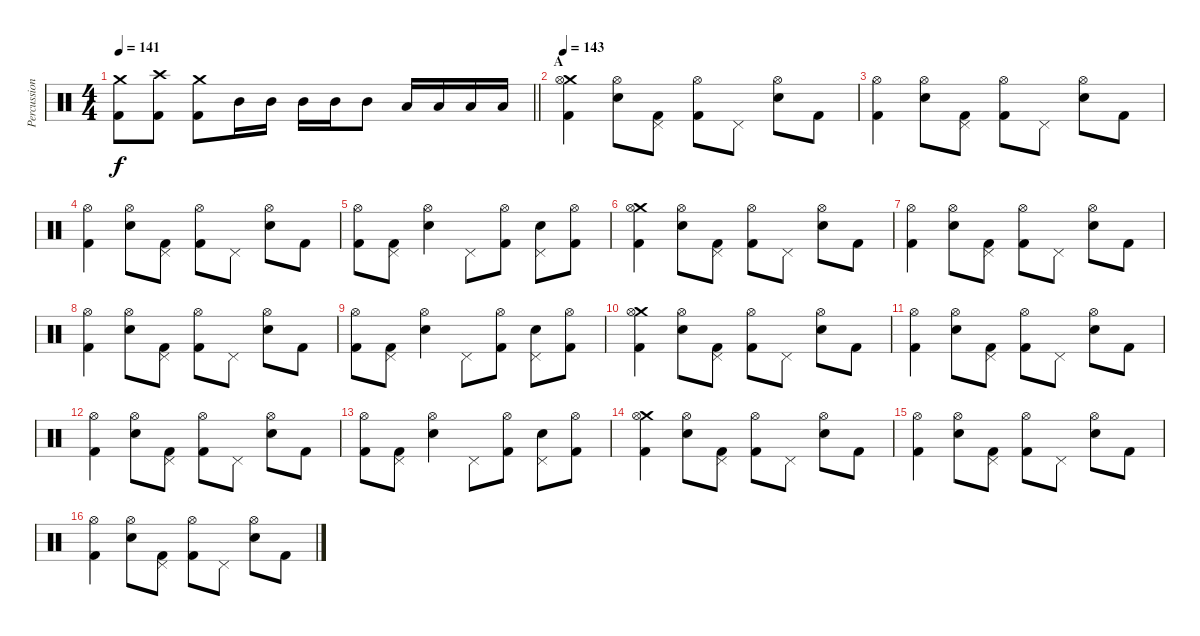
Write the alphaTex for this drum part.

\track ("Percussion" "Percussion") {instrument percussion}
\staff {score}
\articulation defaults
\ts (4 4)
\tempo 141
\clef neutral
\barLineRight lightlight
\ks c
("Crash medium (hit)" "Kick (hit) 2").8{dy f} ("Crash high (hit)" "Kick (hit) 2").8 ("Crash medium (hit)" "Kick (hit) 2").8 "Mid Tom (hit)".16 "Mid Tom (hit)".16 "Mid Tom (hit)".16 "Mid Tom (hit)".16 "Mid Tom (hit)".8 "Low Tom (hit)".16 "Low Tom (hit)".16 "Low Tom (hit)".16 "Low Tom (hit)".16 |
\section ("" "A")
\tempo 143
("Crash medium (hit)" "Hi-Hat (open)" "Kick (hit) 2").4 ("Hi-Hat (open)" "Snare (hit) 2").8 ("Pedal Hi-Hat (hit)" "Kick (hit) 2").8 ("Hi-Hat (open)" "Kick (hit) 2").8 "Pedal Hi-Hat (hit)".8 ("Hi-Hat (open)" "Snare (hit) 2").8 "Kick (hit) 2".8 |
("Hi-Hat (open)" "Kick (hit) 2").4 ("Hi-Hat (open)" "Snare (hit) 2").8 ("Pedal Hi-Hat (hit)" "Kick (hit) 2").8 ("Hi-Hat (open)" "Kick (hit) 2").8 "Pedal Hi-Hat (hit)".8 ("Hi-Hat (open)" "Snare (hit) 2").8 "Kick (hit) 2".8 |
("Hi-Hat (open)" "Kick (hit) 2").4 ("Hi-Hat (open)" "Snare (hit) 2").8 ("Pedal Hi-Hat (hit)" "Kick (hit) 2").8 ("Hi-Hat (open)" "Kick (hit) 2").8 "Pedal Hi-Hat (hit)".8 ("Hi-Hat (open)" "Snare (hit) 2").8 "Kick (hit) 2".8 |
("Hi-Hat (open)" "Kick (hit) 2").8 ("Pedal Hi-Hat (hit)" "Kick (hit) 2").8 ("Hi-Hat (open)" "Snare (hit) 2").4 "Pedal Hi-Hat (hit)".8 ("Hi-Hat (open)" "Kick (hit) 2").8 ("Pedal Hi-Hat (hit)" "Snare (hit) 2").8 ("Hi-Hat (open)" "Kick (hit) 2").8 |
("Crash medium (hit)" "Hi-Hat (open)" "Kick (hit) 2").4 ("Hi-Hat (open)" "Snare (hit) 2").8 ("Pedal Hi-Hat (hit)" "Kick (hit) 2").8 ("Hi-Hat (open)" "Kick (hit) 2").8 "Pedal Hi-Hat (hit)".8 ("Hi-Hat (open)" "Snare (hit) 2").8 "Kick (hit) 2".8 |
("Hi-Hat (open)" "Kick (hit) 2").4 ("Hi-Hat (open)" "Snare (hit) 2").8 ("Pedal Hi-Hat (hit)" "Kick (hit) 2").8 ("Hi-Hat (open)" "Kick (hit) 2").8 "Pedal Hi-Hat (hit)".8 ("Hi-Hat (open)" "Snare (hit) 2").8 "Kick (hit) 2".8 |
("Hi-Hat (open)" "Kick (hit) 2").4 ("Hi-Hat (open)" "Snare (hit) 2").8 ("Pedal Hi-Hat (hit)" "Kick (hit) 2").8 ("Hi-Hat (open)" "Kick (hit) 2").8 "Pedal Hi-Hat (hit)".8 ("Hi-Hat (open)" "Snare (hit) 2").8 "Kick (hit) 2".8 |
("Hi-Hat (open)" "Kick (hit) 2").8 ("Pedal Hi-Hat (hit)" "Kick (hit) 2").8 ("Hi-Hat (open)" "Snare (hit) 2").4 "Pedal Hi-Hat (hit)".8 ("Hi-Hat (open)" "Kick (hit) 2").8 ("Pedal Hi-Hat (hit)" "Snare (hit) 2").8 ("Hi-Hat (open)" "Kick (hit) 2").8 |
("Crash medium (hit)" "Hi-Hat (open)" "Kick (hit) 2").4 ("Hi-Hat (open)" "Snare (hit) 2").8 ("Pedal Hi-Hat (hit)" "Kick (hit) 2").8 ("Hi-Hat (open)" "Kick (hit) 2").8 "Pedal Hi-Hat (hit)".8 ("Hi-Hat (open)" "Snare (hit) 2").8 "Kick (hit) 2".8 |
("Hi-Hat (open)" "Kick (hit) 2").4 ("Hi-Hat (open)" "Snare (hit) 2").8 ("Pedal Hi-Hat (hit)" "Kick (hit) 2").8 ("Hi-Hat (open)" "Kick (hit) 2").8 "Pedal Hi-Hat (hit)".8 ("Hi-Hat (open)" "Snare (hit) 2").8 "Kick (hit) 2".8 |
("Hi-Hat (open)" "Kick (hit) 2").4 ("Hi-Hat (open)" "Snare (hit) 2").8 ("Pedal Hi-Hat (hit)" "Kick (hit) 2").8 ("Hi-Hat (open)" "Kick (hit) 2").8 "Pedal Hi-Hat (hit)".8 ("Hi-Hat (open)" "Snare (hit) 2").8 "Kick (hit) 2".8 |
("Hi-Hat (open)" "Kick (hit) 2").8 ("Pedal Hi-Hat (hit)" "Kick (hit) 2").8 ("Hi-Hat (open)" "Snare (hit) 2").4 "Pedal Hi-Hat (hit)".8 ("Hi-Hat (open)" "Kick (hit) 2").8 ("Pedal Hi-Hat (hit)" "Snare (hit) 2").8 ("Hi-Hat (open)" "Kick (hit) 2").8 |
("Crash medium (hit)" "Hi-Hat (open)" "Kick (hit) 2").4 ("Hi-Hat (open)" "Snare (hit) 2").8 ("Pedal Hi-Hat (hit)" "Kick (hit) 2").8 ("Hi-Hat (open)" "Kick (hit) 2").8 "Pedal Hi-Hat (hit)".8 ("Hi-Hat (open)" "Snare (hit) 2").8 "Kick (hit) 2".8 |
("Hi-Hat (open)" "Kick (hit) 2").4 ("Hi-Hat (open)" "Snare (hit) 2").8 ("Pedal Hi-Hat (hit)" "Kick (hit) 2").8 ("Hi-Hat (open)" "Kick (hit) 2").8 "Pedal Hi-Hat (hit)".8 ("Hi-Hat (open)" "Snare (hit) 2").8 "Kick (hit) 2".8 |
("Hi-Hat (open)" "Kick (hit) 2").4 ("Hi-Hat (open)" "Snare (hit) 2").8 ("Pedal Hi-Hat (hit)" "Kick (hit) 2").8 ("Hi-Hat (open)" "Kick (hit) 2").8 "Pedal Hi-Hat (hit)".8 ("Hi-Hat (open)" "Snare (hit) 2").8 "Kick (hit) 2".8
